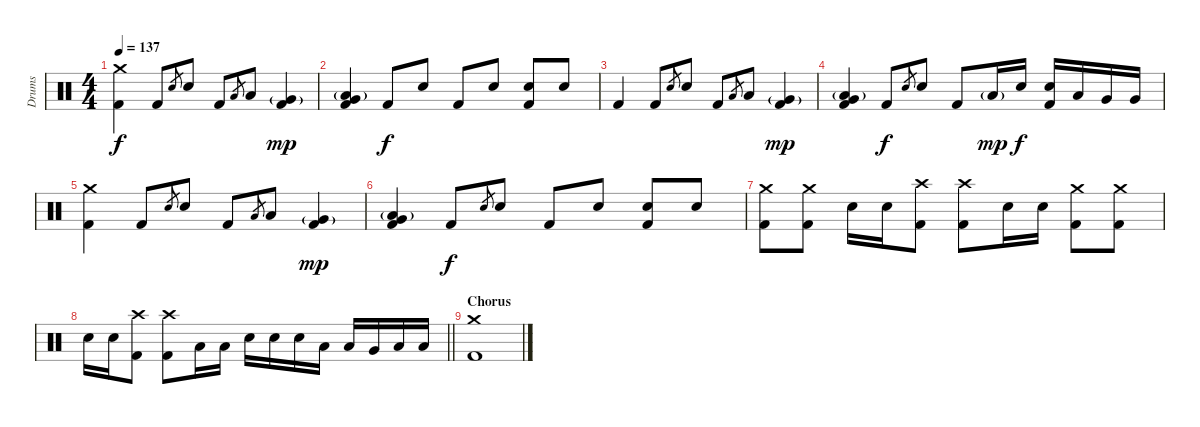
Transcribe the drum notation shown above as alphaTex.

\track ("Drums" "Drums") {instrument percussion}
\staff {score}
\articulation defaults
\ts (4 4)
\tempo 137
\clef neutral
\ks c
("Crash medium (hit)" "Kick (hit) 2").4{dy f} "Kick (hit) 2".8 "Electric Snare (hit)".8{gr} "Electric Snare (hit)".8 "Kick (hit) 2".8 "Low Tom (hit)".8{gr} "Low Tom (hit)".8 ("Very Low Tom (hit)"{g} "Kick (hit) 2").4{dy mp} |
("Low Floor Tom (hit)"{g} "Very Low Tom (hit)" "Kick (hit) 2").4 "Kick (hit) 2".8{dy f} "Electric Snare (hit)".8 "Kick (hit) 2".8 "Electric Snare (hit)".8 ("Electric Snare (hit)" "Kick (hit) 2").8 "Electric Snare (hit)".8 |
"Kick (hit) 2".4 "Kick (hit) 2".8 "Electric Snare (hit)".8{gr} "Electric Snare (hit)".8 "Kick (hit) 2".8 "Low Tom (hit)".8{gr} "Low Tom (hit)".8 ("Very Low Tom (hit)"{g} "Kick (hit) 2").4{dy mp} |
("Low Floor Tom (hit)"{g} "Very Low Tom (hit)" "Kick (hit) 2").4 "Kick (hit) 2".8{dy f} "Electric Snare (hit)".8{gr} "Electric Snare (hit)".8 "Kick (hit) 2".8 "Low Tom (hit)"{g}.16{dy mp} "Electric Snare (hit)".16{dy f} ("Electric Snare (hit)" "Kick (hit) 2").16 "Low Tom (hit)".16 "Very Low Tom (hit)".16 "Very Low Tom (hit)".16 |
("Crash medium (hit)" "Kick (hit) 2").4 "Kick (hit) 2".8 "Electric Snare (hit)".8{gr} "Electric Snare (hit)".8 "Kick (hit) 2".8 "Low Tom (hit)".8{gr} "Low Tom (hit)".8 ("Very Low Tom (hit)"{g} "Kick (hit) 2").4{dy mp} |
("Low Floor Tom (hit)"{g} "Very Low Tom (hit)" "Kick (hit) 2").4 "Kick (hit) 2".8{dy f} "Electric Snare (hit)".8{gr} "Electric Snare (hit)".8 "Kick (hit) 2".8 "Electric Snare (hit)".8 ("Electric Snare (hit)" "Kick (hit) 2").8 "Electric Snare (hit)".8 |
("Crash medium (hit)" "Kick (hit) 2").8 ("Crash medium (hit)" "Kick (hit) 2").8 "Electric Snare (hit)".16 "Electric Snare (hit)".16 ("Crash high (hit)" "Kick (hit) 2").8 ("Crash high (hit)" "Kick (hit) 2").8 "Electric Snare (hit)".16 "Electric Snare (hit)".16 ("Crash medium (hit)" "Kick (hit) 2").8 ("Crash medium (hit)" "Kick (hit) 2").8 |
\barLineRight lightlight "Electric Snare (hit)".16 "Electric Snare (hit)".16
("Crash high (hit)" "Kick (hit) 2").8 ("Crash high (hit)" "Kick (hit) 2").8 "Low Tom (hit)".16 "Low Tom (hit)".16 "Electric Snare (hit)".16 "Electric Snare (hit)".16 "Electric Snare (hit)".16 "Low Tom (hit)".16 "Low Tom (hit)".16 "Very Low Tom (hit)".16 "Low Floor Tom (hit)".16 "Low Floor Tom (hit)".16 |
\section ("" "Chorus")
("Crash medium (hit)" "Kick (hit) 2").1
